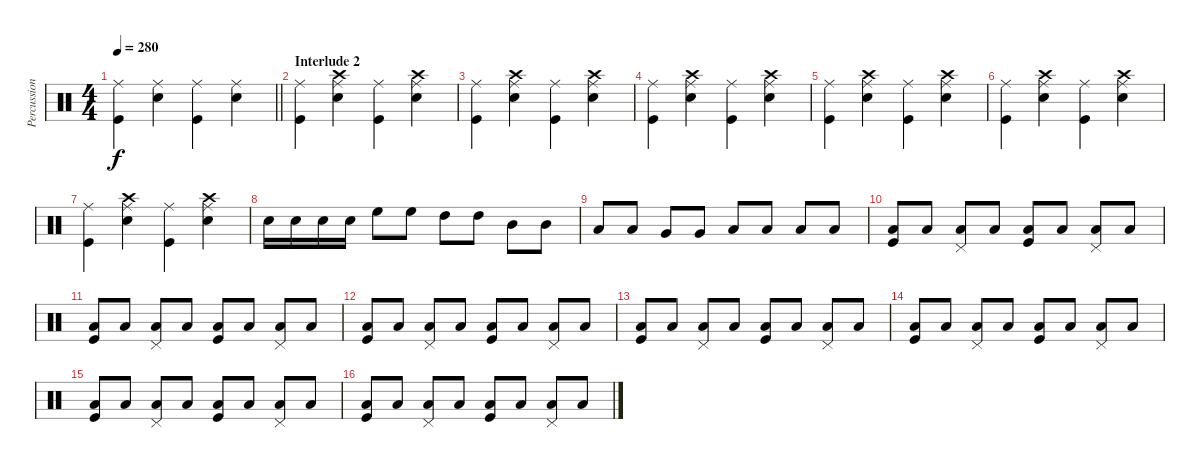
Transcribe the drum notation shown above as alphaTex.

\track ("Percussion" "Percussion") {instrument percussion}
\staff {score}
\articulation defaults
\ts (4 4)
\tempo 280
\clef neutral
\barLineRight lightlight
\ks c
("Ride (middle)" "Kick (hit)").4{dy f} ("Ride (middle)" "Snare (hit) 2").4 ("Ride (middle)" "Kick (hit)").4 ("Ride (middle)" "Snare (hit) 2").4 |
\section ("" "Interlude 2")
("Ride (middle)" "Kick (hit)").4 ("Crash high (hit)" "Ride (middle)" "Snare (hit) 2").4 ("Ride (middle)" "Kick (hit)").4 ("Crash high (hit)" "Ride (middle)" "Snare (hit) 2").4 |
("Ride (middle)" "Kick (hit)").4 ("Crash high (hit)" "Ride (middle)" "Snare (hit) 2").4 ("Ride (middle)" "Kick (hit)").4 ("Crash high (hit)" "Ride (middle)" "Snare (hit) 2").4 |
("Ride (middle)" "Kick (hit)").4 ("Crash high (hit)" "Ride (middle)" "Snare (hit) 2").4 ("Ride (middle)" "Kick (hit)").4 ("Crash high (hit)" "Ride (middle)" "Snare (hit) 2").4 |
("Ride (middle)" "Kick (hit)").4 ("Crash high (hit)" "Ride (middle)" "Snare (hit) 2").4 ("Ride (middle)" "Kick (hit)").4 ("Crash high (hit)" "Ride (middle)" "Snare (hit) 2").4 |
("Ride (middle)" "Kick (hit)").4 ("Crash high (hit)" "Ride (middle)" "Snare (hit) 2").4 ("Ride (middle)" "Kick (hit)").4 ("Crash high (hit)" "Ride (middle)" "Snare (hit) 2").4 |
("Ride (middle)" "Kick (hit)").4 ("Crash high (hit)" "Ride (middle)" "Snare (hit) 2").4 ("Ride (middle)" "Kick (hit)").4 ("Crash high (hit)" "Ride (middle)" "Snare (hit) 2").4 |
"Snare (hit) 2".16 "Snare (hit) 2".16 "Snare (hit) 2".16 "Snare (hit) 2".16 "High Floor Tom (hit)".8 "High Floor Tom (hit)".8 "High Tom (hit)".8 "High Tom (hit)".8 "Mid Tom (hit)".8 "Mid Tom (hit)".8 |
"Low Tom (hit)".8 "Low Tom (hit)".8 "Very Low Tom (hit)".8 "Very Low Tom (hit)".8 "Low Floor Tom (hit)".8 "Low Floor Tom (hit)".8 "Low Floor Tom (hit)".8 "Low Floor Tom (hit)".8 |
("Low Floor Tom (hit)" "Kick (hit)").8 "Low Floor Tom (hit)".8 ("Pedal Hi-Hat (hit)" "Low Floor Tom (hit)").8 "Low Floor Tom (hit)".8 ("Low Floor Tom (hit)" "Kick (hit)").8 "Low Floor Tom (hit)".8 ("Pedal Hi-Hat (hit)" "Low Floor Tom (hit)").8 "Low Floor Tom (hit)".8 |
("Low Floor Tom (hit)" "Kick (hit)").8 "Low Floor Tom (hit)".8 ("Pedal Hi-Hat (hit)" "Low Floor Tom (hit)").8 "Low Floor Tom (hit)".8 ("Low Floor Tom (hit)" "Kick (hit)").8 "Low Floor Tom (hit)".8 ("Pedal Hi-Hat (hit)" "Low Floor Tom (hit)").8 "Low Floor Tom (hit)".8 |
("Low Floor Tom (hit)" "Kick (hit)").8 "Low Floor Tom (hit)".8 ("Pedal Hi-Hat (hit)" "Low Floor Tom (hit)").8 "Low Floor Tom (hit)".8 ("Low Floor Tom (hit)" "Kick (hit)").8 "Low Floor Tom (hit)".8 ("Pedal Hi-Hat (hit)" "Low Floor Tom (hit)").8 "Low Floor Tom (hit)".8 |
("Low Floor Tom (hit)" "Kick (hit)").8 "Low Floor Tom (hit)".8 ("Pedal Hi-Hat (hit)" "Low Floor Tom (hit)").8 "Low Floor Tom (hit)".8 ("Low Floor Tom (hit)" "Kick (hit)").8 "Low Floor Tom (hit)".8 ("Pedal Hi-Hat (hit)" "Low Floor Tom (hit)").8 "Low Floor Tom (hit)".8 |
("Low Floor Tom (hit)" "Kick (hit)").8 "Low Floor Tom (hit)".8 ("Pedal Hi-Hat (hit)" "Low Floor Tom (hit)").8 "Low Floor Tom (hit)".8 ("Low Floor Tom (hit)" "Kick (hit)").8 "Low Floor Tom (hit)".8 ("Pedal Hi-Hat (hit)" "Low Floor Tom (hit)").8 "Low Floor Tom (hit)".8 |
("Low Floor Tom (hit)" "Kick (hit)").8 "Low Floor Tom (hit)".8 ("Pedal Hi-Hat (hit)" "Low Floor Tom (hit)").8 "Low Floor Tom (hit)".8 ("Low Floor Tom (hit)" "Kick (hit)").8 "Low Floor Tom (hit)".8 ("Pedal Hi-Hat (hit)" "Low Floor Tom (hit)").8 "Low Floor Tom (hit)".8 |
("Low Floor Tom (hit)" "Kick (hit)").8 "Low Floor Tom (hit)".8 ("Pedal Hi-Hat (hit)" "Low Floor Tom (hit)").8 "Low Floor Tom (hit)".8 ("Low Floor Tom (hit)" "Kick (hit)").8 "Low Floor Tom (hit)".8 ("Pedal Hi-Hat (hit)" "Low Floor Tom (hit)").8 "Low Floor Tom (hit)".8
